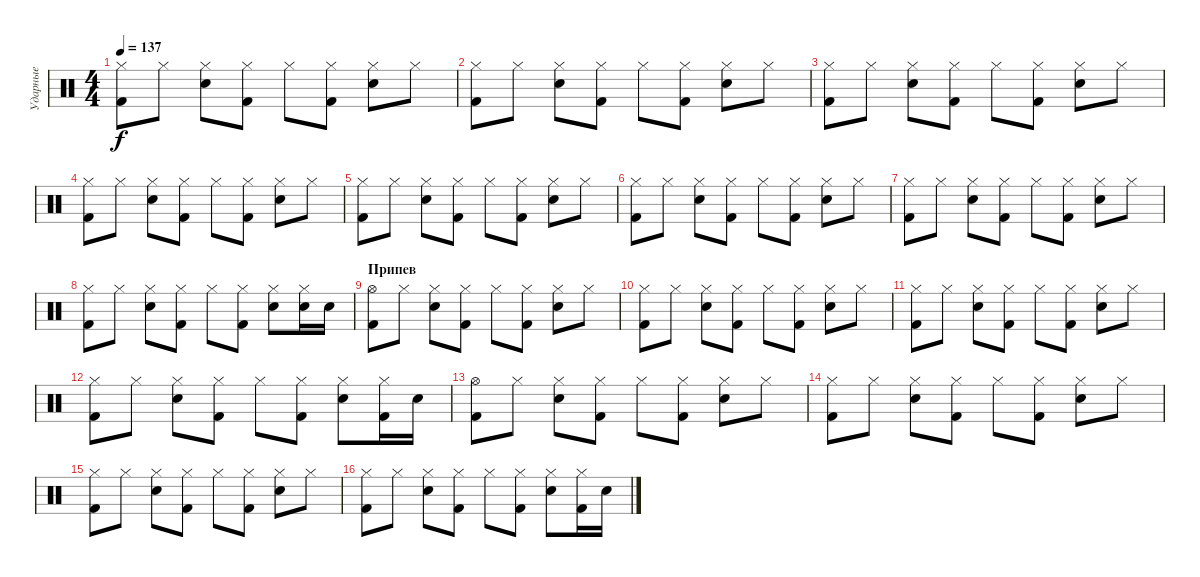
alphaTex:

\track ("Ударные" "Ударные") {instrument percussion}
\staff {score}
\articulation defaults
\ts (4 4)
\tempo 137
\clef neutral
\ks c
("Hi-Hat (closed)" "Kick (hit) 2").8{dy f} "Hi-Hat (closed)".8 ("Hi-Hat (closed)" "Electric Snare (hit)").8 ("Hi-Hat (closed)" "Kick (hit) 2").8 "Hi-Hat (closed)".8 ("Hi-Hat (closed)" "Kick (hit) 2").8 ("Hi-Hat (closed)" "Electric Snare (hit)").8 "Hi-Hat (closed)".8 |
("Hi-Hat (closed)" "Kick (hit) 2").8 "Hi-Hat (closed)".8 ("Hi-Hat (closed)" "Electric Snare (hit)").8 ("Hi-Hat (closed)" "Kick (hit) 2").8 "Hi-Hat (closed)".8 ("Hi-Hat (closed)" "Kick (hit) 2").8 ("Hi-Hat (closed)" "Electric Snare (hit)").8 "Hi-Hat (closed)".8 |
("Hi-Hat (closed)" "Kick (hit) 2").8 "Hi-Hat (closed)".8 ("Hi-Hat (closed)" "Electric Snare (hit)").8 ("Hi-Hat (closed)" "Kick (hit) 2").8 "Hi-Hat (closed)".8 ("Hi-Hat (closed)" "Kick (hit) 2").8 ("Hi-Hat (closed)" "Electric Snare (hit)").8 "Hi-Hat (closed)".8 |
("Hi-Hat (closed)" "Kick (hit) 2").8 "Hi-Hat (closed)".8 ("Hi-Hat (closed)" "Electric Snare (hit)").8 ("Hi-Hat (closed)" "Kick (hit) 2").8 "Hi-Hat (closed)".8 ("Hi-Hat (closed)" "Kick (hit) 2").8 ("Hi-Hat (closed)" "Electric Snare (hit)").8 "Hi-Hat (closed)".8 |
("Hi-Hat (closed)" "Kick (hit) 2").8 "Hi-Hat (closed)".8 ("Hi-Hat (closed)" "Electric Snare (hit)").8 ("Hi-Hat (closed)" "Kick (hit) 2").8 "Hi-Hat (closed)".8 ("Hi-Hat (closed)" "Kick (hit) 2").8 ("Hi-Hat (closed)" "Electric Snare (hit)").8 "Hi-Hat (closed)".8 |
("Hi-Hat (closed)" "Kick (hit) 2").8 "Hi-Hat (closed)".8 ("Hi-Hat (closed)" "Electric Snare (hit)").8 ("Hi-Hat (closed)" "Kick (hit) 2").8 "Hi-Hat (closed)".8 ("Hi-Hat (closed)" "Kick (hit) 2").8 ("Hi-Hat (closed)" "Electric Snare (hit)").8 "Hi-Hat (closed)".8 |
("Hi-Hat (closed)" "Kick (hit) 2").8 "Hi-Hat (closed)".8 ("Hi-Hat (closed)" "Electric Snare (hit)").8 ("Hi-Hat (closed)" "Kick (hit) 2").8 "Hi-Hat (closed)".8 ("Hi-Hat (closed)" "Kick (hit) 2").8 ("Hi-Hat (closed)" "Electric Snare (hit)").8 "Hi-Hat (closed)".8 |
("Hi-Hat (closed)" "Kick (hit) 2").8 "Hi-Hat (closed)".8 ("Hi-Hat (closed)" "Electric Snare (hit)").8 ("Hi-Hat (closed)" "Kick (hit) 2").8 "Hi-Hat (closed)".8 ("Hi-Hat (closed)" "Kick (hit) 2").8 ("Hi-Hat (closed)" "Electric Snare (hit)").8 ("Hi-Hat (closed)" "Electric Snare (hit)").16 "Electric Snare (hit)".16 |
\section ("" "Припев")
("Hi-Hat (open)" "Kick (hit) 2").8 "Hi-Hat (closed)".8 ("Hi-Hat (closed)" "Electric Snare (hit)").8 ("Hi-Hat (closed)" "Kick (hit) 2").8 "Hi-Hat (closed)".8 ("Hi-Hat (closed)" "Kick (hit) 2").8 ("Hi-Hat (closed)" "Electric Snare (hit)").8 "Hi-Hat (closed)".8 |
("Hi-Hat (closed)" "Kick (hit) 2").8 "Hi-Hat (closed)".8 ("Hi-Hat (closed)" "Electric Snare (hit)").8 ("Hi-Hat (closed)" "Kick (hit) 2").8 "Hi-Hat (closed)".8 ("Hi-Hat (closed)" "Kick (hit) 2").8 ("Hi-Hat (closed)" "Electric Snare (hit)").8 "Hi-Hat (closed)".8 |
("Hi-Hat (closed)" "Kick (hit) 2").8 "Hi-Hat (closed)".8 ("Hi-Hat (closed)" "Electric Snare (hit)").8 ("Hi-Hat (closed)" "Kick (hit) 2").8 "Hi-Hat (closed)".8 ("Hi-Hat (closed)" "Kick (hit) 2").8 ("Hi-Hat (closed)" "Electric Snare (hit)").8 "Hi-Hat (closed)".8 |
("Hi-Hat (closed)" "Kick (hit) 2").8 "Hi-Hat (closed)".8 ("Hi-Hat (closed)" "Electric Snare (hit)").8 ("Hi-Hat (closed)" "Kick (hit) 2").8 "Hi-Hat (closed)".8 ("Hi-Hat (closed)" "Kick (hit) 2").8 ("Hi-Hat (closed)" "Electric Snare (hit)").8 ("Hi-Hat (closed)" "Kick (hit) 2").16 "Electric Snare (hit)".16 |
("Hi-Hat (open)" "Kick (hit) 2").8 "Hi-Hat (closed)".8 ("Hi-Hat (closed)" "Electric Snare (hit)").8 ("Hi-Hat (closed)" "Kick (hit) 2").8 "Hi-Hat (closed)".8 ("Hi-Hat (closed)" "Kick (hit) 2").8 ("Hi-Hat (closed)" "Electric Snare (hit)").8 "Hi-Hat (closed)".8 |
("Hi-Hat (closed)" "Kick (hit) 2").8 "Hi-Hat (closed)".8 ("Hi-Hat (closed)" "Electric Snare (hit)").8 ("Hi-Hat (closed)" "Kick (hit) 2").8 "Hi-Hat (closed)".8 ("Hi-Hat (closed)" "Kick (hit) 2").8 ("Hi-Hat (closed)" "Electric Snare (hit)").8 "Hi-Hat (closed)".8 |
("Hi-Hat (closed)" "Kick (hit) 2").8 "Hi-Hat (closed)".8 ("Hi-Hat (closed)" "Electric Snare (hit)").8 ("Hi-Hat (closed)" "Kick (hit) 2").8 "Hi-Hat (closed)".8 ("Hi-Hat (closed)" "Kick (hit) 2").8 ("Hi-Hat (closed)" "Electric Snare (hit)").8 "Hi-Hat (closed)".8 |
("Hi-Hat (closed)" "Kick (hit) 2").8 "Hi-Hat (closed)".8 ("Hi-Hat (closed)" "Electric Snare (hit)").8 ("Hi-Hat (closed)" "Kick (hit) 2").8 "Hi-Hat (closed)".8 ("Hi-Hat (closed)" "Kick (hit) 2").8 ("Hi-Hat (closed)" "Electric Snare (hit)").8 ("Hi-Hat (closed)" "Kick (hit) 2").16 "Electric Snare (hit)".16
